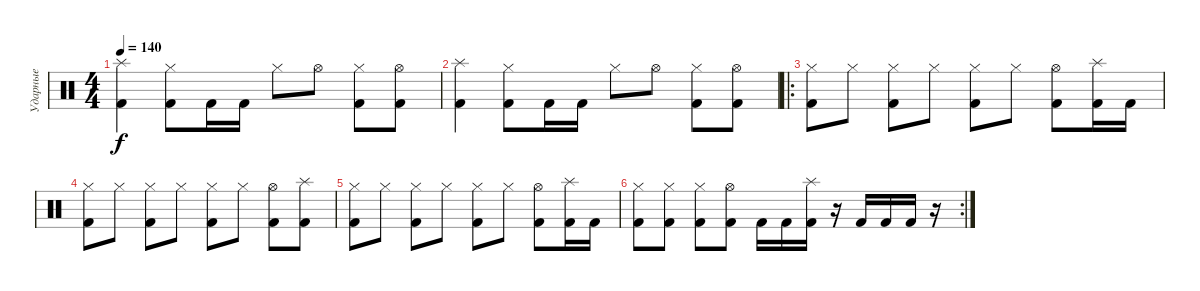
\track ("Ударные" "Ударные") {instrument percussion}
\staff {score}
\articulation defaults
\ts (4 4)
\tempo 140
\clef neutral
\ks c
("Splash (hit)" "Kick (hit) 2").4{dy f} ("Hi-Hat (closed)" "Kick (hit) 2").8 "Kick (hit) 2".16 "Kick (hit) 2".16 "Hi-Hat (closed)".8 "Hi-Hat (open)".8 ("Hi-Hat (closed)" "Kick (hit) 2").8 ("Hi-Hat (open)" "Kick (hit) 2").8 |
("Splash (hit)" "Kick (hit) 2").4 ("Hi-Hat (closed)" "Kick (hit) 2").8 "Kick (hit) 2".16 "Kick (hit) 2".16 "Hi-Hat (closed)".8 "Hi-Hat (open)".8 ("Hi-Hat (closed)" "Kick (hit) 2").8 ("Hi-Hat (open)" "Kick (hit) 2").8 |
\ro
("Hi-Hat (closed)" "Kick (hit) 2").8 "Hi-Hat (closed)".8 ("Hi-Hat (closed)" "Kick (hit) 2").8 "Hi-Hat (closed)".8 ("Hi-Hat (closed)" "Kick (hit) 2").8 "Hi-Hat (closed)".8 ("Hi-Hat (open)" "Kick (hit) 2").8 ("Splash (hit)" "Kick (hit) 2").16 "Kick (hit) 2".16 |
("Hi-Hat (closed)" "Kick (hit) 2").8 "Hi-Hat (closed)".8 ("Hi-Hat (closed)" "Kick (hit) 2").8 "Hi-Hat (closed)".8 ("Hi-Hat (closed)" "Kick (hit) 2").8 "Hi-Hat (closed)".8 ("Hi-Hat (open)" "Kick (hit) 2").8 ("Splash (hit)" "Kick (hit) 2").8 |
("Hi-Hat (closed)" "Kick (hit) 2").8 "Hi-Hat (closed)".8 ("Hi-Hat (closed)" "Kick (hit) 2").8 "Hi-Hat (closed)".8 ("Hi-Hat (closed)" "Kick (hit) 2").8 "Hi-Hat (closed)".8 ("Hi-Hat (open)" "Kick (hit) 2").8 ("Splash (hit)" "Kick (hit) 2").16 "Kick (hit) 2".16 |
\rc 2
("Hi-Hat (closed)" "Kick (hit) 2").8 ("Hi-Hat (closed)" "Kick (hit) 2").8 ("Hi-Hat (closed)" "Kick (hit) 2").8 ("Hi-Hat (open)" "Kick (hit) 2").8 "Kick (hit) 2".16 "Kick (hit) 2".16 ("Splash (hit)" "Kick (hit) 2").16 r.16 "Kick (hit) 2".16 "Kick (hit) 2".16 "Kick (hit) 2".16 r.16
